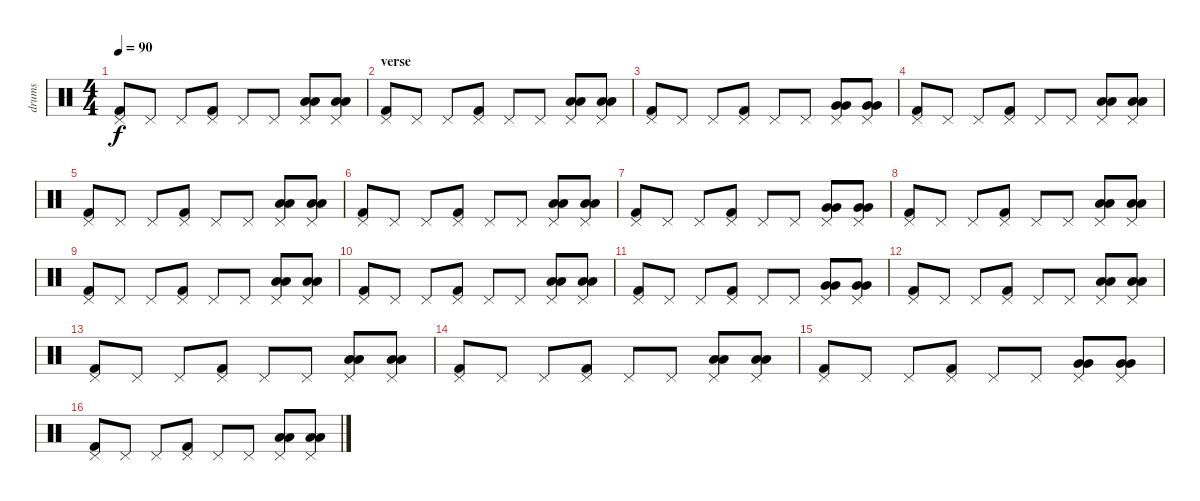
\track ("drums" "drums") {instrument percussion}
\staff {score}
\articulation defaults
\ts (4 4)
\tempo 90
\clef neutral
\ks c
("Kick (hit) 2" "Pedal Hi-Hat (hit)").8{dy f} "Pedal Hi-Hat (hit)".8 "Pedal Hi-Hat (hit)".8 ("Kick (hit) 2" "Pedal Hi-Hat (hit)").8 "Pedal Hi-Hat (hit)".8 "Pedal Hi-Hat (hit)".8 ("Low Floor Tom (hit)" "Low Floor Tom (hit)" "Pedal Hi-Hat (hit)").8 ("Low Floor Tom (hit)" "Low Floor Tom (hit)" "Pedal Hi-Hat (hit)").8 |
\section ("" "verse ")
("Kick (hit) 2" "Pedal Hi-Hat (hit)").8 "Pedal Hi-Hat (hit)".8 "Pedal Hi-Hat (hit)".8 ("Kick (hit) 2" "Pedal Hi-Hat (hit)").8 "Pedal Hi-Hat (hit)".8 "Pedal Hi-Hat (hit)".8 ("Low Tom (hit)" "Low Tom (hit)" "Pedal Hi-Hat (hit)").8 ("Low Tom (hit)" "Low Tom (hit)" "Pedal Hi-Hat (hit)").8 |
("Kick (hit) 2" "Pedal Hi-Hat (hit)").8 "Pedal Hi-Hat (hit)".8 "Pedal Hi-Hat (hit)".8 ("Kick (hit) 2" "Pedal Hi-Hat (hit)").8 "Pedal Hi-Hat (hit)".8 "Pedal Hi-Hat (hit)".8 ("Very Low Tom (hit)" "Very Low Tom (hit)" "Pedal Hi-Hat (hit)").8 ("Very Low Tom (hit)" "Very Low Tom (hit)" "Pedal Hi-Hat (hit)").8 |
("Kick (hit) 2" "Pedal Hi-Hat (hit)").8 "Pedal Hi-Hat (hit)".8 "Pedal Hi-Hat (hit)".8 ("Kick (hit) 2" "Pedal Hi-Hat (hit)").8 "Pedal Hi-Hat (hit)".8 "Pedal Hi-Hat (hit)".8 ("Low Tom (hit)" "Low Tom (hit)" "Pedal Hi-Hat (hit)").8 ("Low Tom (hit)" "Low Tom (hit)" "Pedal Hi-Hat (hit)").8 |
("Kick (hit) 2" "Pedal Hi-Hat (hit)").8 "Pedal Hi-Hat (hit)".8 "Pedal Hi-Hat (hit)".8 ("Kick (hit) 2" "Pedal Hi-Hat (hit)").8 "Pedal Hi-Hat (hit)".8 "Pedal Hi-Hat (hit)".8 ("Low Floor Tom (hit)" "Low Floor Tom (hit)" "Pedal Hi-Hat (hit)").8 ("Low Floor Tom (hit)" "Low Floor Tom (hit)" "Pedal Hi-Hat (hit)").8 |
("Kick (hit) 2" "Pedal Hi-Hat (hit)").8 "Pedal Hi-Hat (hit)".8 "Pedal Hi-Hat (hit)".8 ("Kick (hit) 2" "Pedal Hi-Hat (hit)").8 "Pedal Hi-Hat (hit)".8 "Pedal Hi-Hat (hit)".8 ("Low Tom (hit)" "Low Tom (hit)" "Pedal Hi-Hat (hit)").8 ("Low Tom (hit)" "Low Tom (hit)" "Pedal Hi-Hat (hit)").8 |
("Kick (hit) 2" "Pedal Hi-Hat (hit)").8 "Pedal Hi-Hat (hit)".8 "Pedal Hi-Hat (hit)".8 ("Kick (hit) 2" "Pedal Hi-Hat (hit)").8 "Pedal Hi-Hat (hit)".8 "Pedal Hi-Hat (hit)".8 ("Very Low Tom (hit)" "Very Low Tom (hit)" "Pedal Hi-Hat (hit)").8 ("Very Low Tom (hit)" "Very Low Tom (hit)" "Pedal Hi-Hat (hit)").8 |
("Kick (hit) 2" "Pedal Hi-Hat (hit)").8 "Pedal Hi-Hat (hit)".8 "Pedal Hi-Hat (hit)".8 ("Kick (hit) 2" "Pedal Hi-Hat (hit)").8 "Pedal Hi-Hat (hit)".8 "Pedal Hi-Hat (hit)".8 ("Low Tom (hit)" "Low Tom (hit)" "Pedal Hi-Hat (hit)").8 ("Low Tom (hit)" "Low Tom (hit)" "Pedal Hi-Hat (hit)").8 |
("Kick (hit) 2" "Pedal Hi-Hat (hit)").8 "Pedal Hi-Hat (hit)".8 "Pedal Hi-Hat (hit)".8 ("Kick (hit) 2" "Pedal Hi-Hat (hit)").8 "Pedal Hi-Hat (hit)".8 "Pedal Hi-Hat (hit)".8 ("Low Floor Tom (hit)" "Low Floor Tom (hit)" "Pedal Hi-Hat (hit)").8 ("Low Floor Tom (hit)" "Low Floor Tom (hit)" "Pedal Hi-Hat (hit)").8 |
("Kick (hit) 2" "Pedal Hi-Hat (hit)").8 "Pedal Hi-Hat (hit)".8 "Pedal Hi-Hat (hit)".8 ("Kick (hit) 2" "Pedal Hi-Hat (hit)").8 "Pedal Hi-Hat (hit)".8 "Pedal Hi-Hat (hit)".8 ("Low Tom (hit)" "Low Tom (hit)" "Pedal Hi-Hat (hit)").8 ("Low Tom (hit)" "Low Tom (hit)" "Pedal Hi-Hat (hit)").8 |
("Kick (hit) 2" "Pedal Hi-Hat (hit)").8 "Pedal Hi-Hat (hit)".8 "Pedal Hi-Hat (hit)".8 ("Kick (hit) 2" "Pedal Hi-Hat (hit)").8 "Pedal Hi-Hat (hit)".8 "Pedal Hi-Hat (hit)".8 ("Very Low Tom (hit)" "Very Low Tom (hit)" "Pedal Hi-Hat (hit)").8 ("Very Low Tom (hit)" "Very Low Tom (hit)" "Pedal Hi-Hat (hit)").8 |
("Kick (hit) 2" "Pedal Hi-Hat (hit)").8 "Pedal Hi-Hat (hit)".8 "Pedal Hi-Hat (hit)".8 ("Kick (hit) 2" "Pedal Hi-Hat (hit)").8 "Pedal Hi-Hat (hit)".8 "Pedal Hi-Hat (hit)".8 ("Low Tom (hit)" "Low Tom (hit)" "Pedal Hi-Hat (hit)").8 ("Low Tom (hit)" "Low Tom (hit)" "Pedal Hi-Hat (hit)").8 |
("Kick (hit) 2" "Pedal Hi-Hat (hit)").8 "Pedal Hi-Hat (hit)".8 "Pedal Hi-Hat (hit)".8 ("Kick (hit) 2" "Pedal Hi-Hat (hit)").8 "Pedal Hi-Hat (hit)".8 "Pedal Hi-Hat (hit)".8 ("Low Floor Tom (hit)" "Low Floor Tom (hit)" "Pedal Hi-Hat (hit)").8 ("Low Floor Tom (hit)" "Low Floor Tom (hit)" "Pedal Hi-Hat (hit)").8 |
("Kick (hit) 2" "Pedal Hi-Hat (hit)").8 "Pedal Hi-Hat (hit)".8 "Pedal Hi-Hat (hit)".8 ("Kick (hit) 2" "Pedal Hi-Hat (hit)").8 "Pedal Hi-Hat (hit)".8 "Pedal Hi-Hat (hit)".8 ("Low Tom (hit)" "Low Tom (hit)" "Pedal Hi-Hat (hit)").8 ("Low Tom (hit)" "Low Tom (hit)" "Pedal Hi-Hat (hit)").8 |
("Kick (hit) 2" "Pedal Hi-Hat (hit)").8 "Pedal Hi-Hat (hit)".8 "Pedal Hi-Hat (hit)".8 ("Kick (hit) 2" "Pedal Hi-Hat (hit)").8 "Pedal Hi-Hat (hit)".8 "Pedal Hi-Hat (hit)".8 ("Very Low Tom (hit)" "Very Low Tom (hit)" "Pedal Hi-Hat (hit)").8 ("Very Low Tom (hit)" "Very Low Tom (hit)" "Pedal Hi-Hat (hit)").8 |
("Kick (hit) 2" "Pedal Hi-Hat (hit)").8 "Pedal Hi-Hat (hit)".8 "Pedal Hi-Hat (hit)".8 ("Kick (hit) 2" "Pedal Hi-Hat (hit)").8 "Pedal Hi-Hat (hit)".8 "Pedal Hi-Hat (hit)".8 ("Low Tom (hit)" "Low Tom (hit)" "Pedal Hi-Hat (hit)").8 ("Low Tom (hit)" "Low Tom (hit)" "Pedal Hi-Hat (hit)").8
